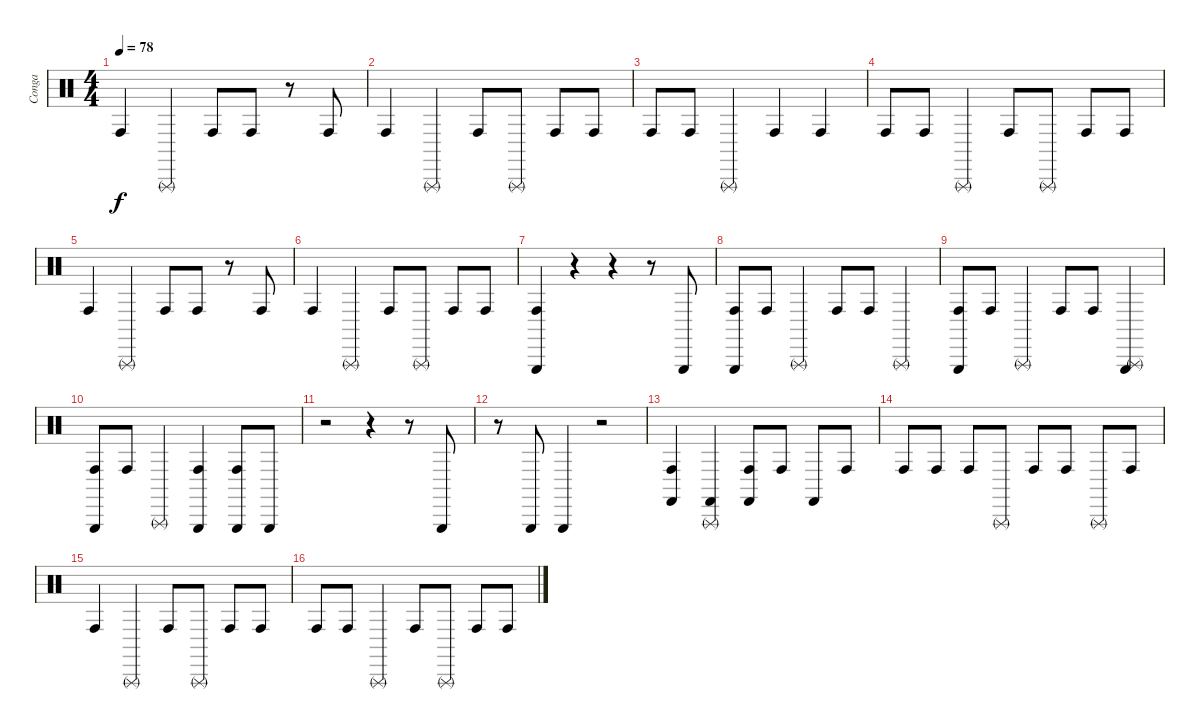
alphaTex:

\track ("Conga" "Conga") {instrument percussion}
\staff {score}
\articulation defaults
\ts (4 4)
\tempo 78
\clef neutral
\ks c "Conga high (hit)".4{dy f} "Triangle (rnute)".4 "Conga high (hit)".8 "Conga high (hit)".8
r.8 "Conga high (hit)".8 |
"Conga high (hit)".4 "Triangle (rnute)".4 "Conga high (hit)".8 "Triangle (rnute)".8 "Conga high (hit)".8 "Conga high (hit)".8 |
"Conga high (hit)".8 "Conga high (hit)".8 "Triangle (rnute)".4 "Conga high (hit)".4 "Conga high (hit)".4 |
"Conga high (hit)".8 "Conga high (hit)".8 "Triangle (rnute)".4 "Conga high (hit)".8 "Triangle (rnute)".8 "Conga high (hit)".8 "Conga high (hit)".8 |
"Conga high (hit)".4 "Triangle (rnute)".4 "Conga high (hit)".8 "Conga high (hit)".8 r.8 "Conga high (hit)".8 |
"Conga high (hit)".4 "Triangle (rnute)".4 "Conga high (hit)".8 "Triangle (rnute)".8 "Conga high (hit)".8 "Conga high (hit)".8 |
("Triangle (hit)" "Conga high (hit)").4 r.4 r.4 r.8 "Triangle (hit)".8 |
("Triangle (hit)" "Conga high (hit)").8 "Conga high (hit)".8 "Triangle (rnute)".4 "Conga high (hit)".8 "Conga high (hit)".8 "Triangle (rnute)".4 |
("Triangle (hit)" "Conga high (hit)").8 "Conga high (hit)".8 "Triangle (rnute)".4 "Conga high (hit)".8 "Conga high (hit)".8 ("Triangle (hit)" "Triangle (rnute)").4 |
("Triangle (hit)" "Conga high (hit)").8 "Conga high (hit)".8 "Triangle (rnute)".4 ("Triangle (hit)" "Conga high (hit)").4 ("Triangle (hit)" "Conga high (hit)").8 "Triangle (hit)".8 |
r.2 r.4 r.8 "Triangle (hit)".8 |
r.8 "Triangle (hit)".8 "Triangle (hit)".4 r.2 |
("Castanets (hit)" "Conga high (hit)").4 ("Triangle (rnute)" "Castanets (hit)").4 ("Castanets (hit)" "Conga high (hit)").8 "Conga high (hit)".8 "Castanets (hit)".8 "Conga high (hit)".8 |
"Conga high (hit)".8 "Conga high (hit)".8 "Conga high (hit)".8 "Triangle (rnute)".8 "Conga high (hit)".8 "Conga high (hit)".8 "Triangle (rnute)".8 "Conga high (hit)".8 |
"Conga high (hit)".4 "Triangle (rnute)".4 "Conga high (hit)".8 "Triangle (rnute)".8 "Conga high (hit)".8 "Conga high (hit)".8 |
"Conga high (hit)".8 "Conga high (hit)".8 "Triangle (rnute)".4 "Conga high (hit)".8 "Triangle (rnute)".8 "Conga high (hit)".8 "Conga high (hit)".8
